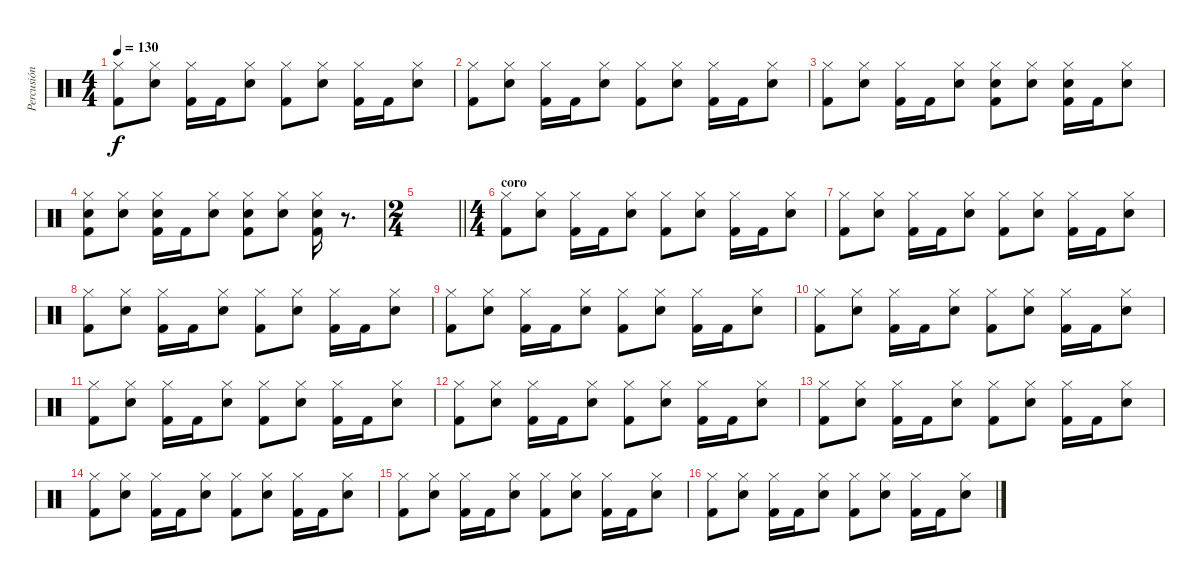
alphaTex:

\track ("Percusión" "Percusión") {instrument percussion}
\staff {score}
\articulation defaults
\ts (4 4)
\tempo 130
\clef neutral
\ks c
("Hi-Hat (closed)" "Kick (hit) 2").8{dy f} ("Hi-Hat (closed)" "Electric Snare (hit)").8 ("Hi-Hat (closed)" "Kick (hit) 2").16 "Kick (hit) 2".16 ("Hi-Hat (closed)" "Electric Snare (hit)").8 ("Hi-Hat (closed)" "Kick (hit) 2").8 ("Hi-Hat (closed)" "Electric Snare (hit)").8 ("Hi-Hat (closed)" "Kick (hit) 2").16 "Kick (hit) 2".16 ("Hi-Hat (closed)" "Electric Snare (hit)").8 |
("Hi-Hat (closed)" "Kick (hit) 2").8 ("Hi-Hat (closed)" "Electric Snare (hit)").8 ("Hi-Hat (closed)" "Kick (hit) 2").16 "Kick (hit) 2".16 ("Hi-Hat (closed)" "Electric Snare (hit)").8 ("Hi-Hat (closed)" "Kick (hit) 2").8 ("Hi-Hat (closed)" "Electric Snare (hit)").8 ("Hi-Hat (closed)" "Kick (hit) 2").16 "Kick (hit) 2".16 ("Hi-Hat (closed)" "Electric Snare (hit)").8 |
("Hi-Hat (closed)" "Kick (hit) 2").8 ("Hi-Hat (closed)" "Electric Snare (hit)").8 ("Hi-Hat (closed)" "Kick (hit) 2").16 "Kick (hit) 2".16 ("Hi-Hat (closed)" "Electric Snare (hit)").8 ("Hi-Hat (closed)" "Electric Snare (hit)" "Kick (hit) 2").8 ("Hi-Hat (closed)" "Electric Snare (hit)").8 ("Hi-Hat (closed)" "Electric Snare (hit)" "Kick (hit) 2").16 "Kick (hit) 2".16 ("Hi-Hat (closed)" "Electric Snare (hit)").8 |
("Hi-Hat (closed)" "Electric Snare (hit)" "Kick (hit) 2").8 ("Hi-Hat (closed)" "Electric Snare (hit)").8 ("Hi-Hat (closed)" "Electric Snare (hit)" "Kick (hit) 2").16 "Kick (hit) 2".16 ("Hi-Hat (closed)" "Electric Snare (hit)").8 ("Hi-Hat (closed)" "Electric Snare (hit)" "Kick (hit) 2").8 ("Hi-Hat (closed)" "Electric Snare (hit)").8 ("Hi-Hat (closed)" "Electric Snare (hit)" "Kick (hit) 2").16 r.8{d} |
\ts (2 4)
\barLineRight lightlight
|
\ts (4 4)
\section ("" "coro")
("Hi-Hat (closed)" "Kick (hit) 2").8 ("Hi-Hat (closed)" "Electric Snare (hit)").8 ("Hi-Hat (closed)" "Kick (hit) 2").16 "Kick (hit) 2".16 ("Hi-Hat (closed)" "Electric Snare (hit)").8 ("Hi-Hat (closed)" "Kick (hit) 2").8 ("Hi-Hat (closed)" "Electric Snare (hit)").8 ("Hi-Hat (closed)" "Kick (hit) 2").16 "Kick (hit) 2".16 ("Hi-Hat (closed)" "Electric Snare (hit)").8 |
("Hi-Hat (closed)" "Kick (hit) 2").8 ("Hi-Hat (closed)" "Electric Snare (hit)").8 ("Hi-Hat (closed)" "Kick (hit) 2").16 "Kick (hit) 2".16 ("Hi-Hat (closed)" "Electric Snare (hit)").8 ("Hi-Hat (closed)" "Kick (hit) 2").8 ("Hi-Hat (closed)" "Electric Snare (hit)").8 ("Hi-Hat (closed)" "Kick (hit) 2").16 "Kick (hit) 2".16 ("Hi-Hat (closed)" "Electric Snare (hit)").8 |
("Hi-Hat (closed)" "Kick (hit) 2").8 ("Hi-Hat (closed)" "Electric Snare (hit)").8 ("Hi-Hat (closed)" "Kick (hit) 2").16 "Kick (hit) 2".16 ("Hi-Hat (closed)" "Electric Snare (hit)").8 ("Hi-Hat (closed)" "Kick (hit) 2").8 ("Hi-Hat (closed)" "Electric Snare (hit)").8 ("Hi-Hat (closed)" "Kick (hit) 2").16 "Kick (hit) 2".16 ("Hi-Hat (closed)" "Electric Snare (hit)").8 |
("Hi-Hat (closed)" "Kick (hit) 2").8 ("Hi-Hat (closed)" "Electric Snare (hit)").8 ("Hi-Hat (closed)" "Kick (hit) 2").16 "Kick (hit) 2".16 ("Hi-Hat (closed)" "Electric Snare (hit)").8 ("Hi-Hat (closed)" "Kick (hit) 2").8 ("Hi-Hat (closed)" "Electric Snare (hit)").8 ("Hi-Hat (closed)" "Kick (hit) 2").16 "Kick (hit) 2".16 ("Hi-Hat (closed)" "Electric Snare (hit)").8 |
("Hi-Hat (closed)" "Kick (hit) 2").8 ("Hi-Hat (closed)" "Electric Snare (hit)").8 ("Hi-Hat (closed)" "Kick (hit) 2").16 "Kick (hit) 2".16 ("Hi-Hat (closed)" "Electric Snare (hit)").8 ("Hi-Hat (closed)" "Kick (hit) 2").8 ("Hi-Hat (closed)" "Electric Snare (hit)").8 ("Hi-Hat (closed)" "Kick (hit) 2").16 "Kick (hit) 2".16 ("Hi-Hat (closed)" "Electric Snare (hit)").8 |
("Hi-Hat (closed)" "Kick (hit) 2").8 ("Hi-Hat (closed)" "Electric Snare (hit)").8 ("Hi-Hat (closed)" "Kick (hit) 2").16 "Kick (hit) 2".16 ("Hi-Hat (closed)" "Electric Snare (hit)").8 ("Hi-Hat (closed)" "Kick (hit) 2").8 ("Hi-Hat (closed)" "Electric Snare (hit)").8 ("Hi-Hat (closed)" "Kick (hit) 2").16 "Kick (hit) 2".16 ("Hi-Hat (closed)" "Electric Snare (hit)").8 |
("Hi-Hat (closed)" "Kick (hit) 2").8 ("Hi-Hat (closed)" "Electric Snare (hit)").8 ("Hi-Hat (closed)" "Kick (hit) 2").16 "Kick (hit) 2".16 ("Hi-Hat (closed)" "Electric Snare (hit)").8 ("Hi-Hat (closed)" "Kick (hit) 2").8 ("Hi-Hat (closed)" "Electric Snare (hit)").8 ("Hi-Hat (closed)" "Kick (hit) 2").16 "Kick (hit) 2".16 ("Hi-Hat (closed)" "Electric Snare (hit)").8 |
("Hi-Hat (closed)" "Kick (hit) 2").8 ("Hi-Hat (closed)" "Electric Snare (hit)").8 ("Hi-Hat (closed)" "Kick (hit) 2").16 "Kick (hit) 2".16 ("Hi-Hat (closed)" "Electric Snare (hit)").8 ("Hi-Hat (closed)" "Kick (hit) 2").8 ("Hi-Hat (closed)" "Electric Snare (hit)").8 ("Hi-Hat (closed)" "Kick (hit) 2").16 "Kick (hit) 2".16 ("Hi-Hat (closed)" "Electric Snare (hit)").8 |
("Hi-Hat (closed)" "Kick (hit) 2").8 ("Hi-Hat (closed)" "Electric Snare (hit)").8 ("Hi-Hat (closed)" "Kick (hit) 2").16 "Kick (hit) 2".16 ("Hi-Hat (closed)" "Electric Snare (hit)").8 ("Hi-Hat (closed)" "Kick (hit) 2").8 ("Hi-Hat (closed)" "Electric Snare (hit)").8 ("Hi-Hat (closed)" "Kick (hit) 2").16 "Kick (hit) 2".16 ("Hi-Hat (closed)" "Electric Snare (hit)").8 |
("Hi-Hat (closed)" "Kick (hit) 2").8 ("Hi-Hat (closed)" "Electric Snare (hit)").8 ("Hi-Hat (closed)" "Kick (hit) 2").16 "Kick (hit) 2".16 ("Hi-Hat (closed)" "Electric Snare (hit)").8 ("Hi-Hat (closed)" "Kick (hit) 2").8 ("Hi-Hat (closed)" "Electric Snare (hit)").8 ("Hi-Hat (closed)" "Kick (hit) 2").16 "Kick (hit) 2".16 ("Hi-Hat (closed)" "Electric Snare (hit)").8 |
("Hi-Hat (closed)" "Kick (hit) 2").8 ("Hi-Hat (closed)" "Electric Snare (hit)").8 ("Hi-Hat (closed)" "Kick (hit) 2").16 "Kick (hit) 2".16 ("Hi-Hat (closed)" "Electric Snare (hit)").8 ("Hi-Hat (closed)" "Kick (hit) 2").8 ("Hi-Hat (closed)" "Electric Snare (hit)").8 ("Hi-Hat (closed)" "Kick (hit) 2").16 "Kick (hit) 2".16 ("Hi-Hat (closed)" "Electric Snare (hit)").8
